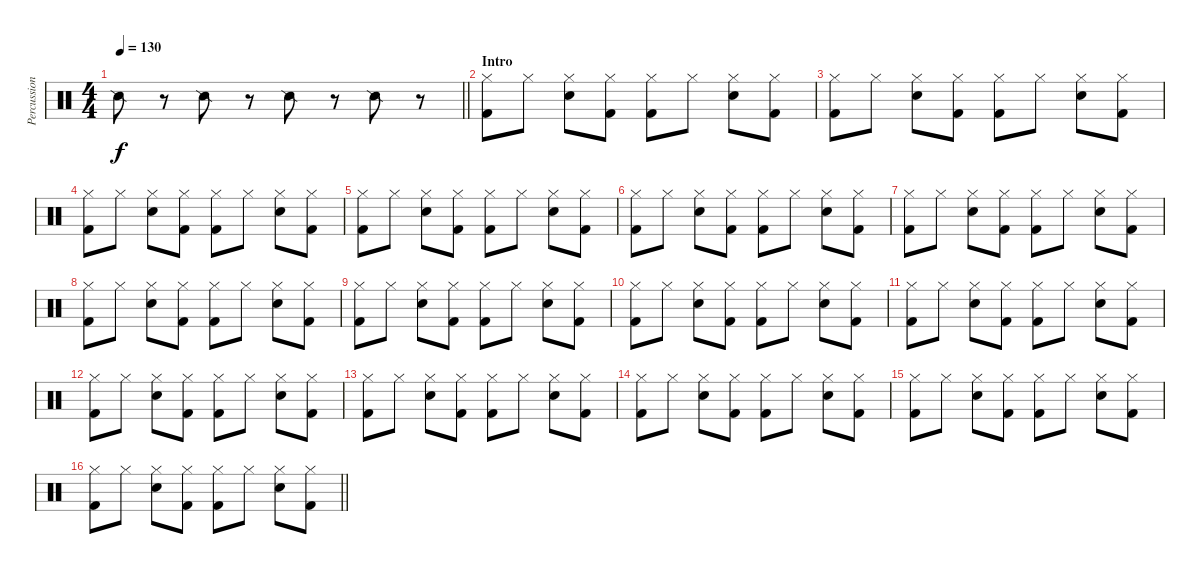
\track ("Percussion" "Percussion") {instrument percussion}
\staff {score}
\articulation defaults
\ts (4 4)
\tempo 130
\clef neutral
\barLineRight lightlight
\ks c "Snare (side stick) 2".8{dy f}
r.8 "Snare (side stick) 2".8 r.8 "Snare (side stick) 2".8 r.8 "Snare (side stick) 2".8 r.8 |
\section ("" "Intro")
("Hi-Hat (closed)" "Kick (hit) 2").8 "Hi-Hat (closed)".8 ("Hi-Hat (closed)" "Snare (hit) 2").8 ("Hi-Hat (closed)" "Kick (hit) 2").8 ("Hi-Hat (closed)" "Kick (hit) 2").8 "Hi-Hat (closed)".8 ("Hi-Hat (closed)" "Snare (hit) 2").8 ("Hi-Hat (closed)" "Kick (hit) 2").8 |
("Hi-Hat (closed)" "Kick (hit) 2").8 "Hi-Hat (closed)".8 ("Hi-Hat (closed)" "Snare (hit) 2").8 ("Hi-Hat (closed)" "Kick (hit) 2").8 ("Hi-Hat (closed)" "Kick (hit) 2").8 "Hi-Hat (closed)".8 ("Hi-Hat (closed)" "Snare (hit) 2").8 ("Hi-Hat (closed)" "Kick (hit) 2").8 |
("Hi-Hat (closed)" "Kick (hit) 2").8 "Hi-Hat (closed)".8 ("Hi-Hat (closed)" "Snare (hit) 2").8 ("Hi-Hat (closed)" "Kick (hit) 2").8 ("Hi-Hat (closed)" "Kick (hit) 2").8 "Hi-Hat (closed)".8 ("Hi-Hat (closed)" "Snare (hit) 2").8 ("Hi-Hat (closed)" "Kick (hit) 2").8 |
("Hi-Hat (closed)" "Kick (hit) 2").8 "Hi-Hat (closed)".8 ("Hi-Hat (closed)" "Snare (hit) 2").8 ("Hi-Hat (closed)" "Kick (hit) 2").8 ("Hi-Hat (closed)" "Kick (hit) 2").8 "Hi-Hat (closed)".8 ("Hi-Hat (closed)" "Snare (hit) 2").8 ("Hi-Hat (closed)" "Kick (hit) 2").8 |
("Hi-Hat (closed)" "Kick (hit) 2").8 "Hi-Hat (closed)".8 ("Hi-Hat (closed)" "Snare (hit) 2").8 ("Hi-Hat (closed)" "Kick (hit) 2").8 ("Hi-Hat (closed)" "Kick (hit) 2").8 "Hi-Hat (closed)".8 ("Hi-Hat (closed)" "Snare (hit) 2").8 ("Hi-Hat (closed)" "Kick (hit) 2").8 |
("Hi-Hat (closed)" "Kick (hit) 2").8 "Hi-Hat (closed)".8 ("Hi-Hat (closed)" "Snare (hit) 2").8 ("Hi-Hat (closed)" "Kick (hit) 2").8 ("Hi-Hat (closed)" "Kick (hit) 2").8 "Hi-Hat (closed)".8 ("Hi-Hat (closed)" "Snare (hit) 2").8 ("Hi-Hat (closed)" "Kick (hit) 2").8 |
("Hi-Hat (closed)" "Kick (hit) 2").8 "Hi-Hat (closed)".8 ("Hi-Hat (closed)" "Snare (hit) 2").8 ("Hi-Hat (closed)" "Kick (hit) 2").8 ("Hi-Hat (closed)" "Kick (hit) 2").8 "Hi-Hat (closed)".8 ("Hi-Hat (closed)" "Snare (hit) 2").8 ("Hi-Hat (closed)" "Kick (hit) 2").8 |
("Hi-Hat (closed)" "Kick (hit) 2").8 "Hi-Hat (closed)".8 ("Hi-Hat (closed)" "Snare (hit) 2").8 ("Hi-Hat (closed)" "Kick (hit) 2").8 ("Hi-Hat (closed)" "Kick (hit) 2").8 "Hi-Hat (closed)".8 ("Hi-Hat (closed)" "Snare (hit) 2").8 ("Hi-Hat (closed)" "Kick (hit) 2").8 |
("Hi-Hat (closed)" "Kick (hit) 2").8 "Hi-Hat (closed)".8 ("Hi-Hat (closed)" "Snare (hit) 2").8 ("Hi-Hat (closed)" "Kick (hit) 2").8 ("Hi-Hat (closed)" "Kick (hit) 2").8 "Hi-Hat (closed)".8 ("Hi-Hat (closed)" "Snare (hit) 2").8 ("Hi-Hat (closed)" "Kick (hit) 2").8 |
("Hi-Hat (closed)" "Kick (hit) 2").8 "Hi-Hat (closed)".8 ("Hi-Hat (closed)" "Snare (hit) 2").8 ("Hi-Hat (closed)" "Kick (hit) 2").8 ("Hi-Hat (closed)" "Kick (hit) 2").8 "Hi-Hat (closed)".8 ("Hi-Hat (closed)" "Snare (hit) 2").8 ("Hi-Hat (closed)" "Kick (hit) 2").8 |
("Hi-Hat (closed)" "Kick (hit) 2").8 "Hi-Hat (closed)".8 ("Hi-Hat (closed)" "Snare (hit) 2").8 ("Hi-Hat (closed)" "Kick (hit) 2").8 ("Hi-Hat (closed)" "Kick (hit) 2").8 "Hi-Hat (closed)".8 ("Hi-Hat (closed)" "Snare (hit) 2").8 ("Hi-Hat (closed)" "Kick (hit) 2").8 |
("Hi-Hat (closed)" "Kick (hit) 2").8 "Hi-Hat (closed)".8 ("Hi-Hat (closed)" "Snare (hit) 2").8 ("Hi-Hat (closed)" "Kick (hit) 2").8 ("Hi-Hat (closed)" "Kick (hit) 2").8 "Hi-Hat (closed)".8 ("Hi-Hat (closed)" "Snare (hit) 2").8 ("Hi-Hat (closed)" "Kick (hit) 2").8 |
("Hi-Hat (closed)" "Kick (hit) 2").8 "Hi-Hat (closed)".8 ("Hi-Hat (closed)" "Snare (hit) 2").8 ("Hi-Hat (closed)" "Kick (hit) 2").8 ("Hi-Hat (closed)" "Kick (hit) 2").8 "Hi-Hat (closed)".8 ("Hi-Hat (closed)" "Snare (hit) 2").8 ("Hi-Hat (closed)" "Kick (hit) 2").8 |
("Hi-Hat (closed)" "Kick (hit) 2").8 "Hi-Hat (closed)".8 ("Hi-Hat (closed)" "Snare (hit) 2").8 ("Hi-Hat (closed)" "Kick (hit) 2").8 ("Hi-Hat (closed)" "Kick (hit) 2").8 "Hi-Hat (closed)".8 ("Hi-Hat (closed)" "Snare (hit) 2").8 ("Hi-Hat (closed)" "Kick (hit) 2").8 |
\barLineRight lightlight
("Hi-Hat (closed)" "Kick (hit) 2").8 "Hi-Hat (closed)".8 ("Hi-Hat (closed)" "Snare (hit) 2").8 ("Hi-Hat (closed)" "Kick (hit) 2").8 ("Hi-Hat (closed)" "Kick (hit) 2").8 "Hi-Hat (closed)".8 ("Hi-Hat (closed)" "Snare (hit) 2").8 ("Hi-Hat (closed)" "Kick (hit) 2").8
